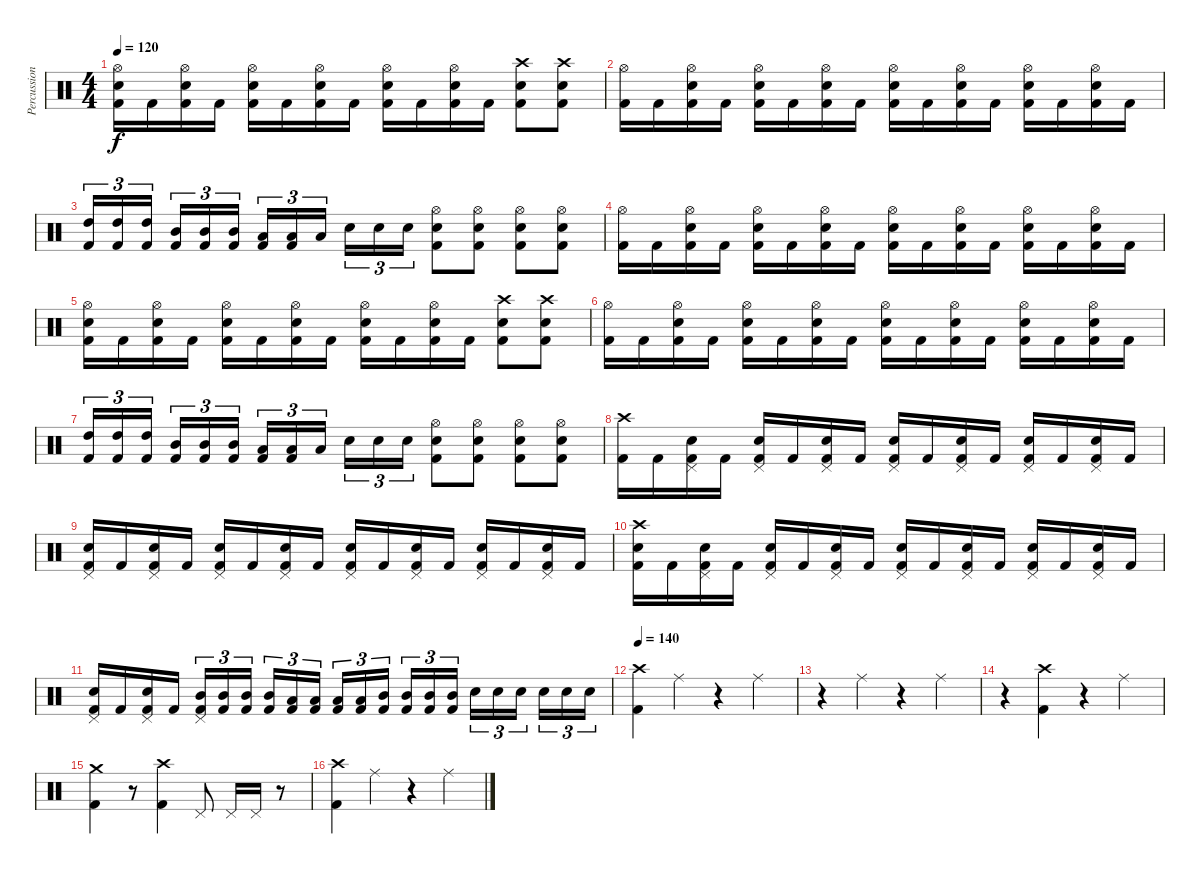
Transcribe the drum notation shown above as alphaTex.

\track ("Percussion" "Percussion") {instrument percussion}
\staff {score}
\articulation defaults
\ts (4 4)
\tempo 120
\clef neutral
\ks c
("Hi-Hat (open)" "Snare (hit) 2" "Kick (hit) 2").16{dy f} "Kick (hit) 2".16 ("Hi-Hat (open)" "Snare (hit) 2" "Kick (hit) 2").16 "Kick (hit) 2".16 ("Hi-Hat (open)" "Snare (hit) 2" "Kick (hit) 2").16 "Kick (hit) 2".16 ("Hi-Hat (open)" "Snare (hit) 2" "Kick (hit) 2").16 "Kick (hit) 2".16 ("Hi-Hat (open)" "Snare (hit) 2" "Kick (hit) 2").16 "Kick (hit) 2".16 ("Hi-Hat (open)" "Snare (hit) 2" "Kick (hit) 2").16 "Kick (hit) 2".16 ("Crash high (hit)" "Snare (hit) 2" "Kick (hit) 2").8 ("Crash high (hit)" "Snare (hit) 2" "Kick (hit) 2").8 |
("Hi-Hat (open)" "Kick (hit) 2").16 "Kick (hit) 2".16 ("Hi-Hat (open)" "Snare (hit) 2" "Kick (hit) 2").16 "Kick (hit) 2".16 ("Hi-Hat (open)" "Snare (hit) 2" "Kick (hit) 2").16 "Kick (hit) 2".16 ("Hi-Hat (open)" "Snare (hit) 2" "Kick (hit) 2").16 "Kick (hit) 2".16 ("Hi-Hat (open)" "Snare (hit) 2" "Kick (hit) 2").16 "Kick (hit) 2".16 ("Hi-Hat (open)" "Snare (hit) 2" "Kick (hit) 2").16 "Kick (hit) 2".16 ("Hi-Hat (open)" "Snare (hit) 2" "Kick (hit) 2").16 "Kick (hit) 2".16 ("Hi-Hat (open)" "Snare (hit) 2" "Kick (hit) 2").16 "Kick (hit) 2".16 |
("High Tom (hit)" "Kick (hit) 2").16{tu (3 2)} ("High Tom (hit)" "Kick (hit) 2").16{tu (3 2)} ("High Tom (hit)" "Kick (hit) 2").16{tu (3 2)} ("Mid Tom (hit)" "Kick (hit) 2").16{tu (3 2)} ("Mid Tom (hit)" "Kick (hit) 2").16{tu (3 2)} ("Mid Tom (hit)" "Kick (hit) 2").16{tu (3 2)} ("Low Tom (hit)" "Kick (hit) 2").16{tu (3 2)} ("Low Tom (hit)" "Kick (hit) 2").16{tu (3 2)} "Low Tom (hit)".16{tu (3 2)} "Snare (hit) 2".16{tu (3 2)} "Snare (hit) 2".16{tu (3 2)} "Snare (hit) 2".16{tu (3 2)} ("Hi-Hat (open)" "Snare (hit) 2" "Kick (hit) 2").8 ("Hi-Hat (open)" "Snare (hit) 2" "Kick (hit) 2").8 ("Hi-Hat (open)" "Snare (hit) 2" "Kick (hit) 2").8 ("Hi-Hat (open)" "Snare (hit) 2" "Kick (hit) 2").8 |
("Hi-Hat (open)" "Kick (hit) 2").16 "Kick (hit) 2".16 ("Hi-Hat (open)" "Snare (hit) 2" "Kick (hit) 2").16 "Kick (hit) 2".16 ("Hi-Hat (open)" "Snare (hit) 2" "Kick (hit) 2").16 "Kick (hit) 2".16 ("Hi-Hat (open)" "Snare (hit) 2" "Kick (hit) 2").16 "Kick (hit) 2".16 ("Hi-Hat (open)" "Snare (hit) 2" "Kick (hit) 2").16 "Kick (hit) 2".16 ("Hi-Hat (open)" "Snare (hit) 2" "Kick (hit) 2").16 "Kick (hit) 2".16 ("Hi-Hat (open)" "Snare (hit) 2" "Kick (hit) 2").16 "Kick (hit) 2".16 ("Hi-Hat (open)" "Snare (hit) 2" "Kick (hit) 2").16 "Kick (hit) 2".16 |
("Hi-Hat (open)" "Snare (hit) 2" "Kick (hit) 2").16 "Kick (hit) 2".16 ("Hi-Hat (open)" "Snare (hit) 2" "Kick (hit) 2").16 "Kick (hit) 2".16 ("Hi-Hat (open)" "Snare (hit) 2" "Kick (hit) 2").16 "Kick (hit) 2".16 ("Hi-Hat (open)" "Snare (hit) 2" "Kick (hit) 2").16 "Kick (hit) 2".16 ("Hi-Hat (open)" "Snare (hit) 2" "Kick (hit) 2").16 "Kick (hit) 2".16 ("Hi-Hat (open)" "Snare (hit) 2" "Kick (hit) 2").16 "Kick (hit) 2".16 ("Crash high (hit)" "Snare (hit) 2" "Kick (hit) 2").8 ("Crash high (hit)" "Snare (hit) 2" "Kick (hit) 2").8 |
("Hi-Hat (open)" "Kick (hit) 2").16 "Kick (hit) 2".16 ("Hi-Hat (open)" "Snare (hit) 2" "Kick (hit) 2").16 "Kick (hit) 2".16 ("Hi-Hat (open)" "Snare (hit) 2" "Kick (hit) 2").16 "Kick (hit) 2".16 ("Hi-Hat (open)" "Snare (hit) 2" "Kick (hit) 2").16 "Kick (hit) 2".16 ("Hi-Hat (open)" "Snare (hit) 2" "Kick (hit) 2").16 "Kick (hit) 2".16 ("Hi-Hat (open)" "Snare (hit) 2" "Kick (hit) 2").16 "Kick (hit) 2".16 ("Hi-Hat (open)" "Snare (hit) 2" "Kick (hit) 2").16 "Kick (hit) 2".16 ("Hi-Hat (open)" "Snare (hit) 2" "Kick (hit) 2").16 "Kick (hit) 2".16 |
("High Tom (hit)" "Kick (hit) 2").16{tu (3 2)} ("High Tom (hit)" "Kick (hit) 2").16{tu (3 2)} ("High Tom (hit)" "Kick (hit) 2").16{tu (3 2)} ("Mid Tom (hit)" "Kick (hit) 2").16{tu (3 2)} ("Mid Tom (hit)" "Kick (hit) 2").16{tu (3 2)} ("Mid Tom (hit)" "Kick (hit) 2").16{tu (3 2)} ("Low Tom (hit)" "Kick (hit) 2").16{tu (3 2)} ("Low Tom (hit)" "Kick (hit) 2").16{tu (3 2)} "Low Tom (hit)".16{tu (3 2)} "Snare (hit) 2".16{tu (3 2)} "Snare (hit) 2".16{tu (3 2)} "Snare (hit) 2".16{tu (3 2)} ("Hi-Hat (open)" "Snare (hit) 2" "Kick (hit) 2").8 ("Hi-Hat (open)" "Snare (hit) 2" "Kick (hit) 2").8 ("Hi-Hat (open)" "Snare (hit) 2" "Kick (hit) 2").8 ("Hi-Hat (open)" "Snare (hit) 2" "Kick (hit) 2").8 |
("Crash high (hit)" "Kick (hit) 2").16 "Kick (hit) 2".16 ("Pedal Hi-Hat (hit)" "Snare (hit) 2" "Kick (hit) 2").16 "Kick (hit) 2".16 ("Pedal Hi-Hat (hit)" "Snare (hit) 2" "Kick (hit) 2").16 "Kick (hit) 2".16 ("Pedal Hi-Hat (hit)" "Snare (hit) 2" "Kick (hit) 2").16 "Kick (hit) 2".16 ("Pedal Hi-Hat (hit)" "Snare (hit) 2" "Kick (hit) 2").16 "Kick (hit) 2".16 ("Pedal Hi-Hat (hit)" "Snare (hit) 2" "Kick (hit) 2").16 "Kick (hit) 2".16 ("Pedal Hi-Hat (hit)" "Snare (hit) 2" "Kick (hit) 2").16 "Kick (hit) 2".16 ("Pedal Hi-Hat (hit)" "Snare (hit) 2" "Kick (hit) 2").16 "Kick (hit) 2".16 |
("Pedal Hi-Hat (hit)" "Snare (hit) 2" "Kick (hit) 2").16 "Kick (hit) 2".16 ("Pedal Hi-Hat (hit)" "Snare (hit) 2" "Kick (hit) 2").16 "Kick (hit) 2".16 ("Pedal Hi-Hat (hit)" "Snare (hit) 2" "Kick (hit) 2").16 "Kick (hit) 2".16 ("Pedal Hi-Hat (hit)" "Snare (hit) 2" "Kick (hit) 2").16 "Kick (hit) 2".16 ("Pedal Hi-Hat (hit)" "Snare (hit) 2" "Kick (hit) 2").16 "Kick (hit) 2".16 ("Pedal Hi-Hat (hit)" "Snare (hit) 2" "Kick (hit) 2").16 "Kick (hit) 2".16 ("Pedal Hi-Hat (hit)" "Snare (hit) 2" "Kick (hit) 2").16 "Kick (hit) 2".16 ("Pedal Hi-Hat (hit)" "Snare (hit) 2" "Kick (hit) 2").16 "Kick (hit) 2".16 |
("Crash high (hit)" "Snare (hit) 2" "Kick (hit) 2").16 "Kick (hit) 2".16 ("Pedal Hi-Hat (hit)" "Snare (hit) 2" "Kick (hit) 2").16 "Kick (hit) 2".16 ("Pedal Hi-Hat (hit)" "Snare (hit) 2" "Kick (hit) 2").16 "Kick (hit) 2".16 ("Pedal Hi-Hat (hit)" "Snare (hit) 2" "Kick (hit) 2").16 "Kick (hit) 2".16 ("Pedal Hi-Hat (hit)" "Snare (hit) 2" "Kick (hit) 2").16 "Kick (hit) 2".16 ("Pedal Hi-Hat (hit)" "Snare (hit) 2" "Kick (hit) 2").16 "Kick (hit) 2".16 ("Pedal Hi-Hat (hit)" "Snare (hit) 2" "Kick (hit) 2").16 "Kick (hit) 2".16 ("Pedal Hi-Hat (hit)" "Snare (hit) 2" "Kick (hit) 2").16 "Kick (hit) 2".16 |
("Pedal Hi-Hat (hit)" "Snare (hit) 2" "Kick (hit) 2").16 "Kick (hit) 2".16 ("Pedal Hi-Hat (hit)" "Snare (hit) 2" "Kick (hit) 2").16 "Kick (hit) 2".16 ("Pedal Hi-Hat (hit)" "Mid Tom (hit)" "Kick (hit) 2").16{tu (3 2)} ("Mid Tom (hit)" "Kick (hit) 2").16{tu (3 2)} ("Mid Tom (hit)" "Kick (hit) 2").16{tu (3 2)} ("Mid Tom (hit)" "Kick (hit) 2").16{tu (3 2)} ("Low Tom (hit)" "Kick (hit) 2").16{tu (3 2)} ("Low Tom (hit)" "Kick (hit) 2").16{tu (3 2)} ("Low Tom (hit)" "Kick (hit) 2").16{tu (3 2)} ("Low Tom (hit)" "Kick (hit) 2").16{tu (3 2)} ("Mid Tom (hit)" "Kick (hit) 2").16{tu (3 2)} ("Mid Tom (hit)" "Kick (hit) 2").16{tu (3 2)} ("Mid Tom (hit)" "Kick (hit) 2").16{tu (3 2)} ("Mid Tom (hit)" "Kick (hit) 2").16{tu (3 2)} "Snare (hit) 2".16{tu (3 2)} "Snare (hit) 2".16{tu (3 2)} "Snare (hit) 2".16{tu (3 2)} "Snare (hit) 2".16{tu (3 2)} "Snare (hit) 2".16{tu (3 2)} "Snare (hit) 2".16{tu (3 2)} |
\tempo 140
("Crash high (hit)" "Kick (hit) 2").4 "Ride (middle)".4 r.4 "Ride (middle)".4 |
r.4 "Ride (middle)".4 r.4 "Ride (middle)".4 |
r.4 ("Crash high (hit)" "Kick (hit) 2").4 r.4 "Ride (middle)".4 |
("Crash medium (hit)" "Kick (hit) 2").4 r.8 ("Crash high (hit)" "Kick (hit) 2").4 "Pedal Hi-Hat (hit)".8 "Pedal Hi-Hat (hit)".16 "Pedal Hi-Hat (hit)".16 r.8 |
("Crash high (hit)" "Kick (hit) 2").4 "Ride (middle)".4 r.4 "Ride (middle)".4
